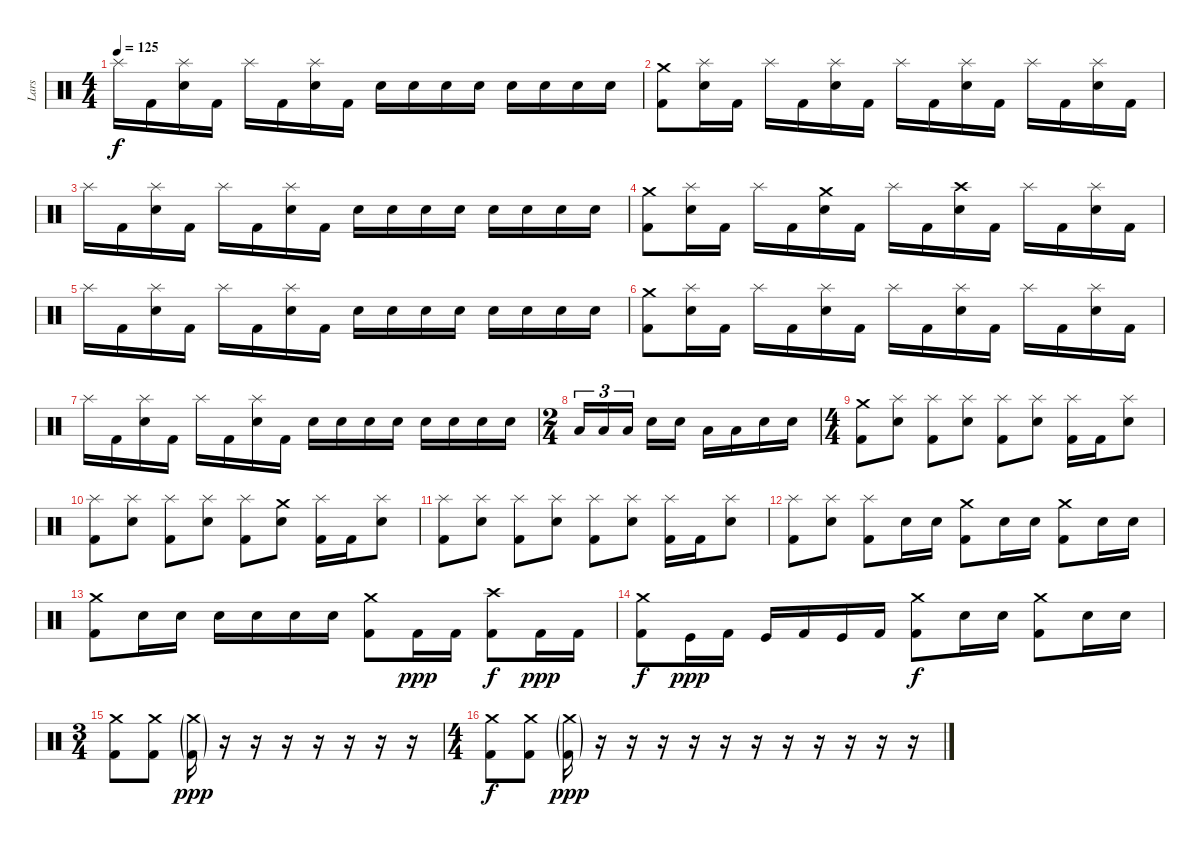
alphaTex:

\track ("Lars" "Lars") {instrument percussion}
\staff {score}
\articulation defaults
\ts (4 4)
\tempo 125
\clef neutral
\ks c "Splash (hit)".16{dy f} "Kick (hit) 2".16
("Splash (hit)" "Snare (hit) 2").16 "Kick (hit) 2".16 "Splash (hit)".16 "Kick (hit) 2".16 ("Splash (hit)" "Snare (hit) 2").16 "Kick (hit) 2".16 "Snare (hit) 2".16 "Snare (hit) 2".16 "Snare (hit) 2".16 "Snare (hit) 2".16 "Snare (hit) 2".16 "Snare (hit) 2".16 "Snare (hit) 2".16 "Snare (hit) 2".16 |
("Crash medium (hit)" "Kick (hit) 2").8 ("Splash (hit)" "Snare (hit) 2").16 "Kick (hit) 2".16 "Splash (hit)".16 "Kick (hit) 2".16 ("Splash (hit)" "Snare (hit) 2").16 "Kick (hit) 2".16 "Splash (hit)".16 "Kick (hit) 2".16 ("Splash (hit)" "Snare (hit) 2").16 "Kick (hit) 2".16 "Splash (hit)".16 "Kick (hit) 2".16 ("Splash (hit)" "Snare (hit) 2").16 "Kick (hit) 2".16 |
"Splash (hit)".16 "Kick (hit) 2".16 ("Splash (hit)" "Snare (hit) 2").16 "Kick (hit) 2".16 "Splash (hit)".16 "Kick (hit) 2".16 ("Splash (hit)" "Snare (hit) 2").16 "Kick (hit) 2".16 "Snare (hit) 2".16 "Snare (hit) 2".16 "Snare (hit) 2".16 "Snare (hit) 2".16 "Snare (hit) 2".16 "Snare (hit) 2".16 "Snare (hit) 2".16 "Snare (hit) 2".16 |
("Crash medium (hit)" "Kick (hit) 2").8 ("Splash (hit)" "Snare (hit) 2").16 "Kick (hit) 2".16 "Splash (hit)".16 "Kick (hit) 2".16 ("Crash medium (hit)" "Snare (hit) 2").16 "Kick (hit) 2".16 "Splash (hit)".16 "Kick (hit) 2".16 ("Crash high (hit)" "Snare (hit) 2").16 "Kick (hit) 2".16 "Splash (hit)".16 "Kick (hit) 2".16 ("Splash (hit)" "Snare (hit) 2").16 "Kick (hit) 2".16 |
"Splash (hit)".16 "Kick (hit) 2".16 ("Splash (hit)" "Snare (hit) 2").16 "Kick (hit) 2".16 "Splash (hit)".16 "Kick (hit) 2".16 ("Splash (hit)" "Snare (hit) 2").16 "Kick (hit) 2".16 "Snare (hit) 2".16 "Snare (hit) 2".16 "Snare (hit) 2".16 "Snare (hit) 2".16 "Snare (hit) 2".16 "Snare (hit) 2".16 "Snare (hit) 2".16 "Snare (hit) 2".16 |
("Crash medium (hit)" "Kick (hit) 2").8 ("Splash (hit)" "Snare (hit) 2").16 "Kick (hit) 2".16 "Splash (hit)".16 "Kick (hit) 2".16 ("Splash (hit)" "Snare (hit) 2").16 "Kick (hit) 2".16 "Splash (hit)".16 "Kick (hit) 2".16 ("Splash (hit)" "Snare (hit) 2").16 "Kick (hit) 2".16 "Splash (hit)".16 "Kick (hit) 2".16 ("Splash (hit)" "Snare (hit) 2").16 "Kick (hit) 2".16 |
"Splash (hit)".16 "Kick (hit) 2".16 ("Splash (hit)" "Snare (hit) 2").16 "Kick (hit) 2".16 "Splash (hit)".16 "Kick (hit) 2".16 ("Splash (hit)" "Snare (hit) 2").16 "Kick (hit) 2".16 "Snare (hit) 2".16 "Snare (hit) 2".16 "Snare (hit) 2".16 "Snare (hit) 2".16 "Snare (hit) 2".16 "Snare (hit) 2".16 "Snare (hit) 2".16 "Snare (hit) 2".16 |
\ts (2 4)
"Low Tom (hit)".16{tu (3 2)} "Low Tom (hit)".16{tu (3 2)} "Low Tom (hit)".16{tu (3 2) beam splitsecondary} "Snare (hit) 2".16 "Snare (hit) 2".16 "Low Tom (hit)".16 "Low Tom (hit)".16 "Snare (hit) 2".16 "Snare (hit) 2".16 |
\ts (4 4)
("Crash medium (hit)" "Kick (hit) 2").8 ("Splash (hit)" "Snare (hit) 2").8 ("Splash (hit)" "Kick (hit) 2").8 ("Splash (hit)" "Snare (hit) 2").8 ("Splash (hit)" "Kick (hit) 2").8 ("Splash (hit)" "Snare (hit) 2").8 ("Splash (hit)" "Kick (hit) 2").16 "Kick (hit) 2".16 ("Splash (hit)" "Snare (hit) 2").8 |
("Splash (hit)" "Kick (hit) 2").8 ("Splash (hit)" "Snare (hit) 2").8 ("Splash (hit)" "Kick (hit) 2").8 ("Splash (hit)" "Snare (hit) 2").8 ("Splash (hit)" "Kick (hit) 2").8 ("Crash medium (hit)" "Snare (hit) 2").8 ("Splash (hit)" "Kick (hit) 2").16 "Kick (hit) 2".16 ("Splash (hit)" "Snare (hit) 2").8 |
("Splash (hit)" "Kick (hit) 2").8 ("Splash (hit)" "Snare (hit) 2").8 ("Splash (hit)" "Kick (hit) 2").8 ("Splash (hit)" "Snare (hit) 2").8 ("Splash (hit)" "Kick (hit) 2").8 ("Splash (hit)" "Snare (hit) 2").8 ("Splash (hit)" "Kick (hit) 2").16 "Kick (hit) 2".16 ("Splash (hit)" "Snare (hit) 2").8 |
("Splash (hit)" "Kick (hit) 2").8 ("Splash (hit)" "Snare (hit) 2").8 ("Splash (hit)" "Kick (hit) 2").8 "Snare (hit) 2".16 "Snare (hit) 2".16 ("Crash medium (hit)" "Kick (hit) 2").8 "Snare (hit) 2".16 "Snare (hit) 2".16 ("Crash medium (hit)" "Kick (hit) 2").8 "Snare (hit) 2".16 "Snare (hit) 2".16 |
("Crash medium (hit)" "Kick (hit) 2").8 "Snare (hit) 2".16 "Snare (hit) 2".16 "Snare (hit) 2".16 "Snare (hit) 2".16 "Snare (hit) 2".16 "Snare (hit) 2".16 ("Crash medium (hit)" "Kick (hit) 2").8 "Kick (hit) 2".16{dy ppp} "Kick (hit) 2".16 ("Crash high (hit)" "Kick (hit) 2").8{dy f} "Kick (hit) 2".16{dy ppp} "Kick (hit) 2".16 |
("Crash medium (hit)" "Kick (hit) 2").8{dy f} "Kick (hit)".16{dy ppp} "Kick (hit) 2".16 "Kick (hit)".16 "Kick (hit) 2".16 "Kick (hit)".16 "Kick (hit) 2".16 ("Crash medium (hit)" "Kick (hit) 2").8{dy f} "Snare (hit) 2".16 "Snare (hit) 2".16 ("Crash medium (hit)" "Kick (hit) 2").8 "Snare (hit) 2".16 "Snare (hit) 2".16 |
\ts (3 4)
("Crash medium (hit)" "Kick (hit) 2").8 ("Crash medium (hit)" "Kick (hit) 2").8 ("Crash medium (hit)"{g} "Kick (hit) 2"{g}).16{dy ppp} r.16 r.16 r.16 r.16 r.16 r.16 r.16 |
\ts (4 4)
("Crash medium (hit)" "Kick (hit) 2").8{dy f} ("Crash medium (hit)" "Kick (hit) 2").8 ("Crash medium (hit)"{g} "Kick (hit) 2"{g}).16{dy ppp} r.16 r.16 r.16 r.16 r.16 r.16 r.16 r.16 r.16 r.16 r.16
